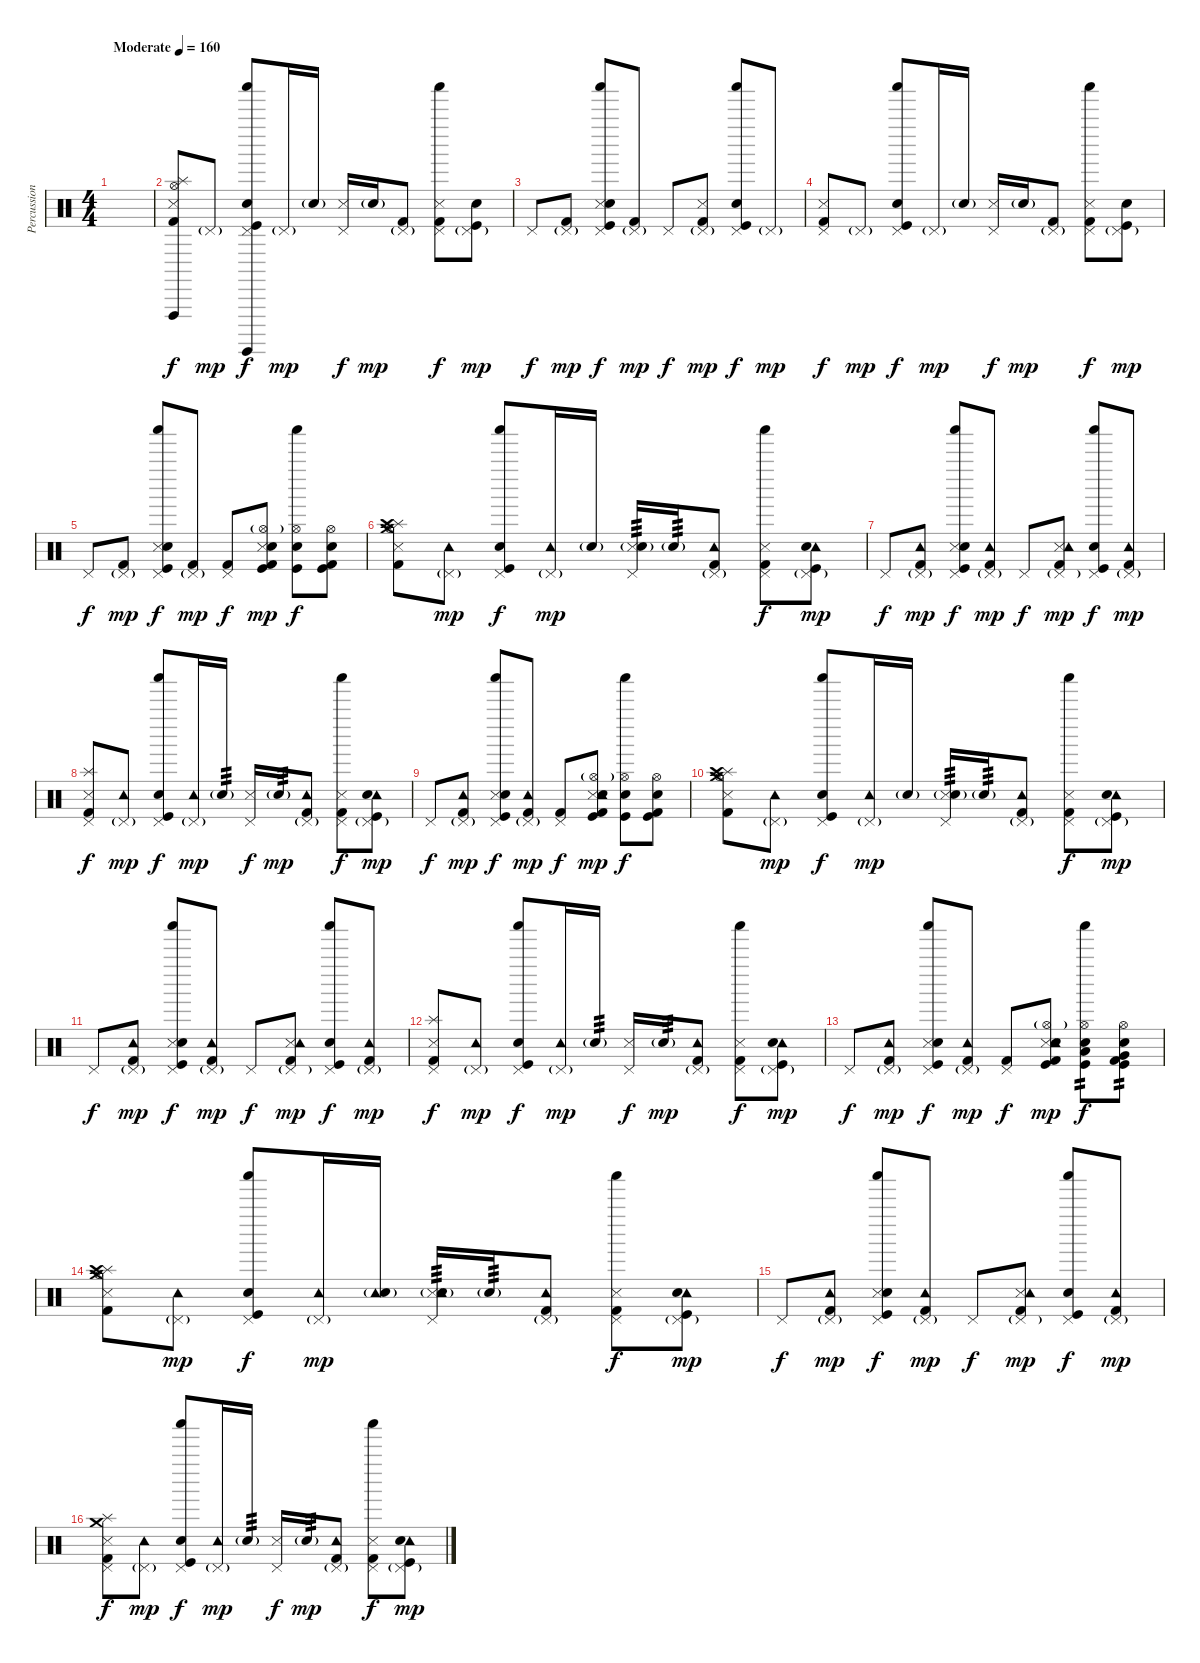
\track ("Percussion" "Percussion") {instrument percussion}
\staff {score}
\articulation defaults
\ts (4 4)
\tempo (160 "Moderate")
\clef neutral
\ks c
|
("Snare (side stick) 3" "Hi-Hat (open)" "Splash (hit)" "Vibraslap (hit)" "Kick (hit) 2").8 "Pedal Hi-Hat (hit)"{g}.8{dy mp} ("Shaker (hit)" "Pedal Hi-Hat (hit)" "Surdo (hit)" "Snare (hit) 2" "Kick (hit)").8{dy f} "Pedal Hi-Hat (hit)"{g}.16{dy mp} "Snare (hit) 2"{g}.16 ("Snare (side stick) 3" "Pedal Hi-Hat (hit)").16{dy f} "Snare (hit) 2"{g}.16{dy mp} ("Pedal Hi-Hat (hit)"{g} "Kick (hit) 2").8 ("Snare (side stick) 3" "Pedal Hi-Hat (hit)" "Shaker (hit)" "Kick (hit) 2").8{dy f} ("Pedal Hi-Hat (hit)"{g} "Snare (hit) 2" "Kick (hit)").8{dy mp} |
"Pedal Hi-Hat (hit)".8{dy f} ("Pedal Hi-Hat (hit)"{g} "Kick (hit) 2").8{dy mp} ("Snare (side stick) 3" "Pedal Hi-Hat (hit)" "Shaker (hit)" "Snare (hit) 2" "Kick (hit)").8{dy f} ("Pedal Hi-Hat (hit)"{g} "Kick (hit) 2").8{dy mp} "Pedal Hi-Hat (hit)".8{dy f} ("Snare (side stick) 3" "Pedal Hi-Hat (hit)"{g} "Kick (hit) 2").8{dy mp} ("Pedal Hi-Hat (hit)" "Shaker (hit)" "Snare (hit) 2" "Kick (hit)").8{dy f} "Pedal Hi-Hat (hit)"{g}.8{dy mp} |
("Snare (side stick) 3" "Pedal Hi-Hat (hit)" "Kick (hit) 2").8{dy f} "Pedal Hi-Hat (hit)"{g}.8{dy mp} ("Pedal Hi-Hat (hit)" "Shaker (hit)" "Snare (hit) 2" "Kick (hit)").8{dy f} "Pedal Hi-Hat (hit)"{g}.16{dy mp} "Snare (hit) 2"{g}.16 ("Snare (side stick) 3" "Pedal Hi-Hat (hit)").16{dy f} "Snare (hit) 2"{g}.16{dy mp} ("Pedal Hi-Hat (hit)"{g} "Kick (hit) 2").8 ("Snare (side stick) 3" "Pedal Hi-Hat (hit)" "Shaker (hit)" "Kick (hit) 2").8{dy f} ("Pedal Hi-Hat (hit)"{g} "Snare (hit) 2" "Kick (hit)").8{dy mp} |
"Pedal Hi-Hat (hit)".8{dy f} ("Pedal Hi-Hat (hit)"{g} "Kick (hit) 2").8{dy mp} ("Snare (side stick) 3" "Pedal Hi-Hat (hit)" "Shaker (hit)" "Snare (hit) 2" "Kick (hit)").8{dy f} ("Pedal Hi-Hat (hit)"{g} "Kick (hit) 2").8{dy mp} ("Pedal Hi-Hat (hit)" "Kick (hit) 2").8{dy f} ("Snare (side stick) 3" "Hi-Hat (open)"{g} "Kick (hit)" "Snare (hit) 2" "Kick (hit) 2").8{dy mp} ("Hi-Hat (open)" "Shaker (hit)" "Snare (hit) 2" "Kick (hit)").8{dy f} ("Hi-Hat (open)" "Kick (hit)" "Snare (hit) 2" "Kick (hit) 2").8 |
("Snare (side stick) 3" "Hi-Hat (open)" "Splash (hit)" "Crash high (hit)" "Crash medium (hit)" "Kick (hit) 2").8 ("Pedal Hi-Hat (hit)"{g} "Tambourine (hit)").8{dy mp} ("Shaker (hit)" "Pedal Hi-Hat (hit)" "Snare (hit) 2" "Kick (hit)").8{dy f} ("Pedal Hi-Hat (hit)"{g} "Tambourine (hit)").16{dy mp} "Snare (hit) 2"{g}.16 ("Snare (side stick) 3" "Pedal Hi-Hat (hit)" "Snare (hit) 2"{g}).16{tp 3} "Snare (hit) 2"{g}.16{tp 3} ("Pedal Hi-Hat (hit)"{g} "Tambourine (hit)" "Kick (hit) 2").8 ("Snare (side stick) 3" "Pedal Hi-Hat (hit)" "Shaker (hit)" "Kick (hit) 2").8{dy f} ("Pedal Hi-Hat (hit)"{g} "Tambourine (hit)" "Snare (hit) 2" "Kick (hit)").8{dy mp} |
"Pedal Hi-Hat (hit)".8{dy f} ("Pedal Hi-Hat (hit)"{g} "Tambourine (hit)" "Kick (hit) 2").8{dy mp} ("Snare (side stick) 3" "Pedal Hi-Hat (hit)" "Shaker (hit)" "Snare (hit) 2" "Kick (hit)").8{dy f} ("Pedal Hi-Hat (hit)"{g} "Tambourine (hit)" "Kick (hit) 2").8{dy mp} "Pedal Hi-Hat (hit)".8{dy f} ("Snare (side stick) 3" "Pedal Hi-Hat (hit)"{g} "Tambourine (hit)" "Kick (hit) 2").8{dy mp} ("Pedal Hi-Hat (hit)" "Shaker (hit)" "Snare (hit) 2" "Kick (hit)").8{dy f} ("Pedal Hi-Hat (hit)"{g} "Tambourine (hit)" "Kick (hit) 2").8{dy mp} |
("Snare (side stick) 3" "Pedal Hi-Hat (hit)" "Splash (hit)" "Kick (hit) 2").8{dy f} ("Pedal Hi-Hat (hit)"{g} "Tambourine (hit)").8{dy mp} ("Pedal Hi-Hat (hit)" "Shaker (hit)" "Snare (hit) 2" "Kick (hit)").8{dy f} ("Pedal Hi-Hat (hit)"{g} "Tambourine (hit)").16{dy mp} "Snare (hit) 2"{g}.16{tp 3} ("Snare (side stick) 3" "Pedal Hi-Hat (hit)").16{dy f} "Snare (hit) 2"{g}.16{tp 3 dy mp} ("Pedal Hi-Hat (hit)"{g} "Tambourine (hit)" "Kick (hit) 2").8 ("Snare (side stick) 3" "Pedal Hi-Hat (hit)" "Shaker (hit)" "Kick (hit) 2").8{dy f} ("Pedal Hi-Hat (hit)"{g} "Tambourine (hit)" "Snare (hit) 2" "Kick (hit)").8{dy mp} |
"Pedal Hi-Hat (hit)".8{dy f} ("Pedal Hi-Hat (hit)"{g} "Tambourine (hit)" "Kick (hit) 2").8{dy mp} ("Snare (side stick) 3" "Pedal Hi-Hat (hit)" "Shaker (hit)" "Snare (hit) 2" "Kick (hit)").8{dy f} ("Pedal Hi-Hat (hit)"{g} "Tambourine (hit)" "Kick (hit) 2").8{dy mp} ("Pedal Hi-Hat (hit)" "Kick (hit) 2").8{dy f} ("Snare (side stick) 3" "Hi-Hat (open)"{g} "Tambourine (hit)" "Kick (hit)" "Snare (hit) 2" "Kick (hit) 2").8{dy mp} ("Hi-Hat (open)" "Shaker (hit)" "Snare (hit) 2" "Kick (hit)").8{dy f} ("Hi-Hat (open)" "Kick (hit)" "Snare (hit) 2" "Kick (hit) 2").8 |
("Snare (side stick) 3" "Hi-Hat (open)" "Splash (hit)" "Crash high (hit)" "Crash medium (hit)" "Kick (hit) 2").8 ("Pedal Hi-Hat (hit)"{g} "Tambourine (hit)").8{dy mp} ("Shaker (hit)" "Pedal Hi-Hat (hit)" "Snare (hit) 2" "Kick (hit)").8{dy f} ("Pedal Hi-Hat (hit)"{g} "Tambourine (hit)").16{dy mp} "Snare (hit) 2"{g}.16 ("Snare (side stick) 3" "Pedal Hi-Hat (hit)" "Snare (hit) 2"{g}).16{tp 3} "Snare (hit) 2"{g}.16{tp 3} ("Pedal Hi-Hat (hit)"{g} "Tambourine (hit)" "Kick (hit) 2").8 ("Snare (side stick) 3" "Pedal Hi-Hat (hit)" "Shaker (hit)" "Kick (hit) 2").8{dy f} ("Pedal Hi-Hat (hit)"{g} "Tambourine (hit)" "Snare (hit) 2" "Kick (hit)").8{dy mp} |
"Pedal Hi-Hat (hit)".8{dy f} ("Pedal Hi-Hat (hit)"{g} "Tambourine (hit)" "Kick (hit) 2").8{dy mp} ("Snare (side stick) 3" "Pedal Hi-Hat (hit)" "Shaker (hit)" "Snare (hit) 2" "Kick (hit)").8{dy f} ("Pedal Hi-Hat (hit)"{g} "Tambourine (hit)" "Kick (hit) 2").8{dy mp} "Pedal Hi-Hat (hit)".8{dy f} ("Snare (side stick) 3" "Pedal Hi-Hat (hit)"{g} "Tambourine (hit)" "Kick (hit) 2").8{dy mp} ("Pedal Hi-Hat (hit)" "Shaker (hit)" "Snare (hit) 2" "Kick (hit)").8{dy f} ("Pedal Hi-Hat (hit)"{g} "Tambourine (hit)" "Kick (hit) 2").8{dy mp} |
("Snare (side stick) 3" "Pedal Hi-Hat (hit)" "Splash (hit)" "Kick (hit) 2").8{dy f} ("Pedal Hi-Hat (hit)"{g} "Tambourine (hit)").8{dy mp} ("Pedal Hi-Hat (hit)" "Shaker (hit)" "Snare (hit) 2" "Kick (hit)").8{dy f} ("Pedal Hi-Hat (hit)"{g} "Tambourine (hit)").16{dy mp} "Snare (hit) 2"{g}.16{tp 3} ("Snare (side stick) 3" "Pedal Hi-Hat (hit)").16{dy f} "Snare (hit) 2"{g}.16{tp 3 dy mp} ("Pedal Hi-Hat (hit)"{g} "Tambourine (hit)" "Kick (hit) 2").8 ("Snare (side stick) 3" "Pedal Hi-Hat (hit)" "Shaker (hit)" "Kick (hit) 2").8{dy f} ("Pedal Hi-Hat (hit)"{g} "Tambourine (hit)" "Snare (hit) 2" "Kick (hit)").8{dy mp} |
"Pedal Hi-Hat (hit)".8{dy f} ("Pedal Hi-Hat (hit)"{g} "Tambourine (hit)" "Kick (hit) 2").8{dy mp} ("Snare (side stick) 3" "Pedal Hi-Hat (hit)" "Shaker (hit)" "Snare (hit) 2" "Kick (hit)").8{dy f} ("Pedal Hi-Hat (hit)"{g} "Tambourine (hit)" "Kick (hit) 2").8{dy mp} ("Pedal Hi-Hat (hit)" "Kick (hit) 2").8{dy f} ("Snare (side stick) 3" "Hi-Hat (open)"{g} "Tambourine (hit)" "Kick (hit)" "Snare (hit) 2" "Kick (hit) 2").8{dy mp} ("Hi-Hat (open)" "Low Tom (hit)" "Shaker (hit)" "Snare (hit) 2" "Kick (hit)").8{tp 2 dy f} ("Hi-Hat (open)" "Very Low Tom (hit)" "Kick (hit)" "Snare (hit) 2" "Kick (hit) 2").8{tp 2} |
("Snare (side stick) 3" "Hi-Hat (open)" "Splash (hit)" "Crash high (hit)" "Crash medium (hit)" "Kick (hit) 2").8 ("Pedal Hi-Hat (hit)"{g} "Tambourine (hit)").8{dy mp} ("Shaker (hit)" "Pedal Hi-Hat (hit)" "Snare (hit) 2" "Kick (hit)").8{dy f} ("Pedal Hi-Hat (hit)"{g} "Tambourine (hit)").16{dy mp} ("Tambourine (hit)" "Snare (hit) 2"{g}).16 ("Snare (side stick) 3" "Pedal Hi-Hat (hit)" "Tambourine (hit)" "Snare (hit) 2"{g}).16{tp 3} "Snare (hit) 2"{g}.16{tp 3} ("Pedal Hi-Hat (hit)"{g} "Tambourine (hit)" "Kick (hit) 2").8 ("Snare (side stick) 3" "Pedal Hi-Hat (hit)" "Shaker (hit)" "Kick (hit) 2").8{dy f} ("Pedal Hi-Hat (hit)"{g} "Tambourine (hit)" "Snare (hit) 2" "Kick (hit)").8{dy mp} |
"Pedal Hi-Hat (hit)".8{dy f} ("Pedal Hi-Hat (hit)"{g} "Tambourine (hit)" "Kick (hit) 2").8{dy mp} ("Snare (side stick) 3" "Pedal Hi-Hat (hit)" "Shaker (hit)" "Snare (hit) 2" "Kick (hit)").8{dy f} ("Pedal Hi-Hat (hit)"{g} "Tambourine (hit)" "Kick (hit) 2").8{dy mp} "Pedal Hi-Hat (hit)".8{dy f} ("Snare (side stick) 3" "Pedal Hi-Hat (hit)"{g} "Tambourine (hit)" "Kick (hit) 2").8{dy mp} ("Pedal Hi-Hat (hit)" "Shaker (hit)" "Snare (hit) 2" "Kick (hit)").8{dy f} ("Pedal Hi-Hat (hit)"{g} "Tambourine (hit)" "Kick (hit) 2").8{dy mp} |
("Snare (side stick) 3" "Pedal Hi-Hat (hit)" "Crash medium (hit)" "Splash (hit)" "Kick (hit) 2").8{dy f} ("Pedal Hi-Hat (hit)"{g} "Tambourine (hit)").8{dy mp} ("Pedal Hi-Hat (hit)" "Shaker (hit)" "Snare (hit) 2" "Kick (hit)").8{dy f} ("Pedal Hi-Hat (hit)"{g} "Tambourine (hit)").16{dy mp} "Snare (hit) 2"{g}.16{tp 3} ("Snare (side stick) 3" "Pedal Hi-Hat (hit)").16{dy f} "Snare (hit) 2"{g}.16{tp 3 dy mp} ("Pedal Hi-Hat (hit)"{g} "Tambourine (hit)" "Kick (hit) 2").8 ("Snare (side stick) 3" "Pedal Hi-Hat (hit)" "Shaker (hit)" "Kick (hit) 2").8{dy f} ("Pedal Hi-Hat (hit)"{g} "Tambourine (hit)" "Snare (hit) 2" "Kick (hit)").8{dy mp}
